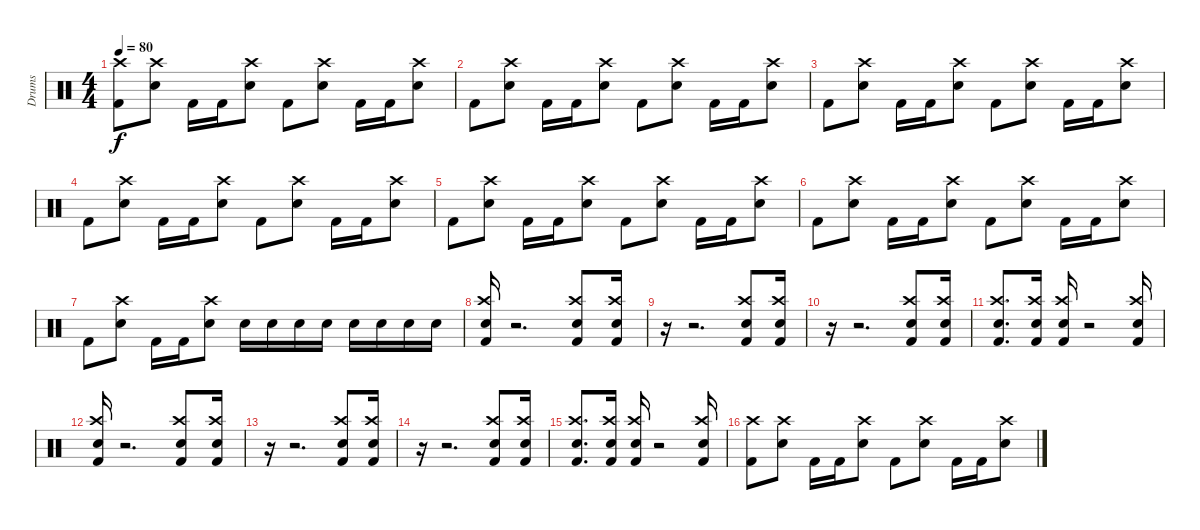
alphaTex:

\track ("Drums" "Drums") {instrument percussion}
\staff {score}
\articulation defaults
\ts (4 4)
\tempo 80
\clef neutral
\ks c
("Kick (hit) 2" "Crash high (hit)").8{dy f} ("Snare (hit) 2" "Crash high (hit)").8 "Kick (hit) 2".16 "Kick (hit) 2".16 ("Snare (hit) 2" "Crash high (hit)").8 "Kick (hit) 2".8 ("Snare (hit) 2" "Crash high (hit)").8 "Kick (hit) 2".16 "Kick (hit) 2".16 ("Snare (hit) 2" "Crash high (hit)").8 |
"Kick (hit) 2".8 ("Snare (hit) 2" "Crash high (hit)").8 "Kick (hit) 2".16 "Kick (hit) 2".16 ("Snare (hit) 2" "Crash high (hit)").8 "Kick (hit) 2".8 ("Snare (hit) 2" "Crash high (hit)").8 "Kick (hit) 2".16 "Kick (hit) 2".16 ("Snare (hit) 2" "Crash high (hit)").8 |
"Kick (hit) 2".8 ("Snare (hit) 2" "Crash high (hit)").8 "Kick (hit) 2".16 "Kick (hit) 2".16 ("Snare (hit) 2" "Crash high (hit)").8 "Kick (hit) 2".8 ("Snare (hit) 2" "Crash high (hit)").8 "Kick (hit) 2".16 "Kick (hit) 2".16 ("Snare (hit) 2" "Crash high (hit)").8 |
"Kick (hit) 2".8 ("Snare (hit) 2" "Crash high (hit)").8 "Kick (hit) 2".16 "Kick (hit) 2".16 ("Snare (hit) 2" "Crash high (hit)").8 "Kick (hit) 2".8 ("Snare (hit) 2" "Crash high (hit)").8 "Kick (hit) 2".16 "Kick (hit) 2".16 ("Snare (hit) 2" "Crash high (hit)").8 |
"Kick (hit) 2".8 ("Snare (hit) 2" "Crash high (hit)").8 "Kick (hit) 2".16 "Kick (hit) 2".16 ("Snare (hit) 2" "Crash high (hit)").8 "Kick (hit) 2".8 ("Snare (hit) 2" "Crash high (hit)").8 "Kick (hit) 2".16 "Kick (hit) 2".16 ("Snare (hit) 2" "Crash high (hit)").8 |
"Kick (hit) 2".8 ("Snare (hit) 2" "Crash high (hit)").8 "Kick (hit) 2".16 "Kick (hit) 2".16 ("Snare (hit) 2" "Crash high (hit)").8 "Kick (hit) 2".8 ("Snare (hit) 2" "Crash high (hit)").8 "Kick (hit) 2".16 "Kick (hit) 2".16 ("Snare (hit) 2" "Crash high (hit)").8 |
"Kick (hit) 2".8 ("Snare (hit) 2" "Crash high (hit)").8 "Kick (hit) 2".16 "Kick (hit) 2".16 ("Snare (hit) 2" "Crash high (hit)").8 "Snare (hit) 2".16 "Snare (hit) 2".16 "Snare (hit) 2".16 "Snare (hit) 2".16 "Snare (hit) 2".16 "Snare (hit) 2".16 "Snare (hit) 2".16 "Snare (hit) 2".16 |
("Kick (hit) 2" "Snare (hit) 2" "Crash high (hit)").16 r.2{d} ("Kick (hit) 2" "Snare (hit) 2" "Crash high (hit)").8 ("Kick (hit) 2" "Snare (hit) 2" "Crash high (hit)").16 |
r.16 r.2{d} ("Kick (hit) 2" "Snare (hit) 2" "Crash high (hit)").8 ("Kick (hit) 2" "Snare (hit) 2" "Crash high (hit)").16 |
r.16 r.2{d} ("Kick (hit) 2" "Snare (hit) 2" "Crash high (hit)").8 ("Kick (hit) 2" "Snare (hit) 2" "Crash high (hit)").16 |
("Kick (hit) 2" "Snare (hit) 2" "Crash high (hit)").8{d} ("Kick (hit) 2" "Snare (hit) 2" "Crash high (hit)").16 ("Kick (hit) 2" "Snare (hit) 2" "Crash high (hit)").16 r.2 ("Kick (hit) 2" "Snare (hit) 2" "Crash high (hit)").16 |
("Kick (hit) 2" "Snare (hit) 2" "Crash high (hit)").16 r.2{d} ("Kick (hit) 2" "Snare (hit) 2" "Crash high (hit)").8 ("Kick (hit) 2" "Snare (hit) 2" "Crash high (hit)").16 |
r.16 r.2{d} ("Kick (hit) 2" "Snare (hit) 2" "Crash high (hit)").8 ("Kick (hit) 2" "Snare (hit) 2" "Crash high (hit)").16 |
r.16 r.2{d} ("Kick (hit) 2" "Snare (hit) 2" "Crash high (hit)").8 ("Kick (hit) 2" "Snare (hit) 2" "Crash high (hit)").16 |
("Kick (hit) 2" "Snare (hit) 2" "Crash high (hit)").8{d} ("Kick (hit) 2" "Snare (hit) 2" "Crash high (hit)").16 ("Kick (hit) 2" "Snare (hit) 2" "Crash high (hit)").16 r.2 ("Kick (hit) 2" "Snare (hit) 2" "Crash high (hit)").16 |
("Kick (hit) 2" "Crash high (hit)").8 ("Snare (hit) 2" "Crash high (hit)").8 "Kick (hit) 2".16 "Kick (hit) 2".16 ("Snare (hit) 2" "Crash high (hit)").8 "Kick (hit) 2".8 ("Snare (hit) 2" "Crash high (hit)").8 "Kick (hit) 2".16 "Kick (hit) 2".16 ("Snare (hit) 2" "Crash high (hit)").8
